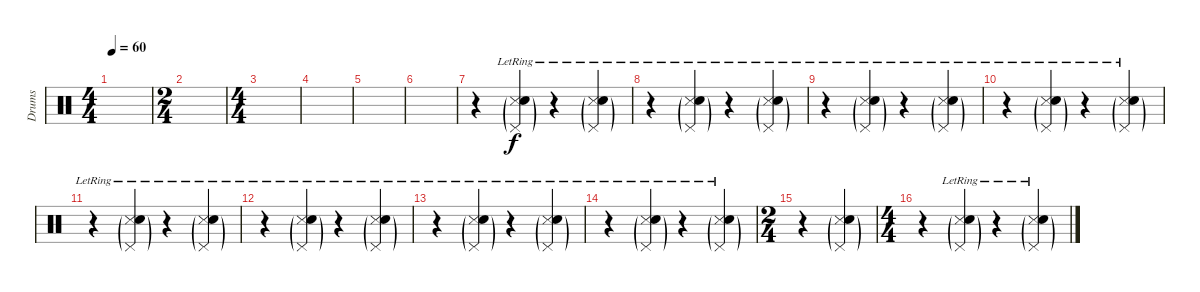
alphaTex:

\track ("Drums" "Drums") {instrument percussion}
\staff {score}
\articulation defaults
\ts (4 4)
\tempo 60
\clef neutral
\ks c
|
\ts (2 4)
|
\ts (4 4)
|
|
|
|
r.4 ("Pedal Hi-Hat (hit)"{g} "Snare (side stick) 3"{lr} "Electric Snare (hit)"{g}).4 r.4 ("Pedal Hi-Hat (hit)"{g} "Snare (side stick) 3"{lr} "Electric Snare (hit)"{g}).4 |
r.4 ("Pedal Hi-Hat (hit)"{g} "Snare (side stick) 3"{lr} "Electric Snare (hit)"{g}).4 r.4 ("Pedal Hi-Hat (hit)"{g} "Snare (side stick) 3"{lr} "Electric Snare (hit)"{g}).4 |
r.4 ("Pedal Hi-Hat (hit)"{g} "Snare (side stick) 3"{lr} "Electric Snare (hit)"{g}).4 r.4 ("Pedal Hi-Hat (hit)"{g} "Snare (side stick) 3"{lr} "Electric Snare (hit)"{g}).4 |
r.4 ("Pedal Hi-Hat (hit)"{g} "Snare (side stick) 3"{lr} "Electric Snare (hit)"{g}).4 r.4 ("Pedal Hi-Hat (hit)"{g} "Snare (side stick) 3"{lr} "Electric Snare (hit)"{g}).4 |
r.4 ("Pedal Hi-Hat (hit)"{g} "Snare (side stick) 3"{lr} "Electric Snare (hit)"{g}).4 r.4 ("Pedal Hi-Hat (hit)"{g} "Snare (side stick) 3"{lr} "Electric Snare (hit)"{g}).4 |
r.4 ("Pedal Hi-Hat (hit)"{g} "Snare (side stick) 3"{lr} "Electric Snare (hit)"{g}).4 r.4 ("Pedal Hi-Hat (hit)"{g} "Snare (side stick) 3"{lr} "Electric Snare (hit)"{g}).4 |
r.4 ("Pedal Hi-Hat (hit)"{g} "Snare (side stick) 3"{lr} "Electric Snare (hit)"{g}).4 r.4 ("Pedal Hi-Hat (hit)"{g} "Snare (side stick) 3"{lr} "Electric Snare (hit)"{g}).4 |
r.4 ("Pedal Hi-Hat (hit)"{g} "Snare (side stick) 3"{lr} "Electric Snare (hit)"{g}).4 r.4 ("Pedal Hi-Hat (hit)"{g} "Snare (side stick) 3"{lr} "Electric Snare (hit)"{g}).4 |
\ts (2 4)
r.4 ("Pedal Hi-Hat (hit)"{g} "Snare (side stick) 3" "Electric Snare (hit)"{g}).4 |
\ts (4 4)
r.4 ("Pedal Hi-Hat (hit)"{g} "Snare (side stick) 3"{lr} "Electric Snare (hit)"{g}).4 r.4 ("Pedal Hi-Hat (hit)"{g} "Snare (side stick) 3"{lr} "Electric Snare (hit)"{g}).4
